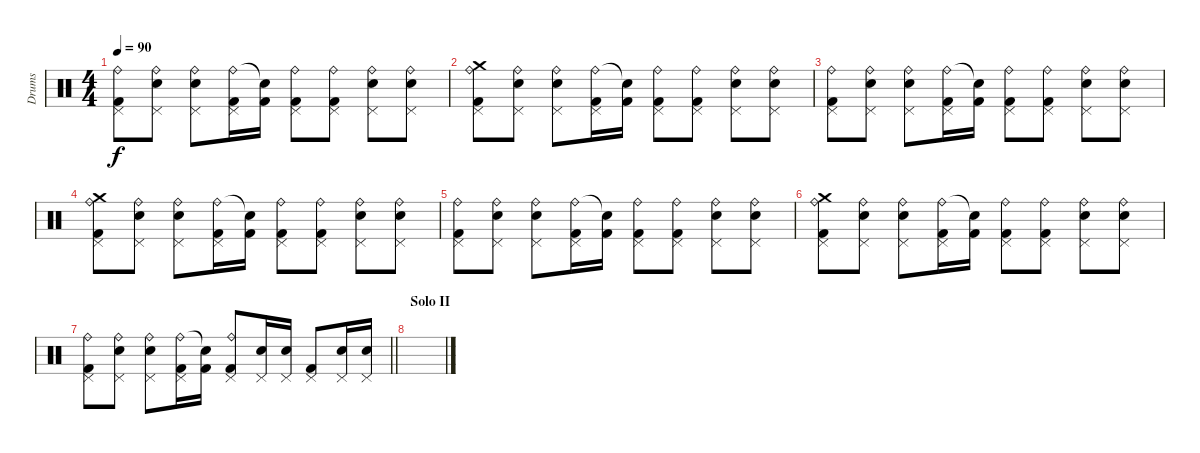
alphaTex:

\track ("Drums" "Drums") {instrument percussion}
\staff {score}
\articulation defaults
\ts (4 4)
\tempo 90
\clef neutral
\ks c
("Ride (bell)" "Pedal Hi-Hat (hit)" "Kick (hit) 2").8{dy f} ("Ride (bell)" "Pedal Hi-Hat (hit)" "Snare (hit)").8 ("Ride (bell)" "Pedal Hi-Hat (hit)" "Electric Snare (hit)").8 ("Ride (bell)" "Pedal Hi-Hat (hit)" "Kick (hit) 2").16 ("Snare (hit)"{t} "Kick (hit) 2").16 ("Ride (bell)" "Pedal Hi-Hat (hit)" "Kick (hit) 2").8 ("Ride (bell)" "Pedal Hi-Hat (hit)" "Kick (hit) 2").8 ("Ride (bell)" "Pedal Hi-Hat (hit)" "Electric Snare (hit)").8 ("Ride (bell)" "Pedal Hi-Hat (hit)" "Snare (hit)").8 |
("Crash medium (hit)" "Ride (bell)" "Pedal Hi-Hat (hit)" "Kick (hit) 2").8 ("Ride (bell)" "Pedal Hi-Hat (hit)" "Snare (hit)").8 ("Ride (bell)" "Pedal Hi-Hat (hit)" "Electric Snare (hit)").8 ("Ride (bell)" "Pedal Hi-Hat (hit)" "Kick (hit) 2").16 ("Snare (hit)"{t} "Kick (hit) 2").16 ("Ride (bell)" "Pedal Hi-Hat (hit)" "Kick (hit) 2").8 ("Ride (bell)" "Pedal Hi-Hat (hit)" "Kick (hit) 2").8 ("Ride (bell)" "Pedal Hi-Hat (hit)" "Electric Snare (hit)").8 ("Ride (bell)" "Pedal Hi-Hat (hit)" "Snare (hit)").8 |
("Ride (bell)" "Pedal Hi-Hat (hit)" "Kick (hit) 2").8 ("Ride (bell)" "Pedal Hi-Hat (hit)" "Snare (hit)").8 ("Ride (bell)" "Pedal Hi-Hat (hit)" "Electric Snare (hit)").8 ("Ride (bell)" "Pedal Hi-Hat (hit)" "Kick (hit) 2").16 ("Snare (hit)"{t} "Kick (hit) 2").16 ("Ride (bell)" "Pedal Hi-Hat (hit)" "Kick (hit) 2").8 ("Ride (bell)" "Pedal Hi-Hat (hit)" "Kick (hit) 2").8 ("Ride (bell)" "Pedal Hi-Hat (hit)" "Electric Snare (hit)").8 ("Ride (bell)" "Pedal Hi-Hat (hit)" "Snare (hit)").8 |
("Crash medium (hit)" "Ride (bell)" "Pedal Hi-Hat (hit)" "Kick (hit) 2").8 ("Ride (bell)" "Pedal Hi-Hat (hit)" "Snare (hit)").8 ("Ride (bell)" "Pedal Hi-Hat (hit)" "Electric Snare (hit)").8 ("Ride (bell)" "Pedal Hi-Hat (hit)" "Kick (hit) 2").16 ("Snare (hit)"{t} "Kick (hit) 2").16 ("Ride (bell)" "Pedal Hi-Hat (hit)" "Kick (hit) 2").8 ("Ride (bell)" "Pedal Hi-Hat (hit)" "Kick (hit) 2").8 ("Ride (bell)" "Pedal Hi-Hat (hit)" "Electric Snare (hit)").8 ("Ride (bell)" "Pedal Hi-Hat (hit)" "Snare (hit)").8 |
("Ride (bell)" "Pedal Hi-Hat (hit)" "Kick (hit) 2").8 ("Ride (bell)" "Pedal Hi-Hat (hit)" "Snare (hit)").8 ("Ride (bell)" "Pedal Hi-Hat (hit)" "Electric Snare (hit)").8 ("Ride (bell)" "Pedal Hi-Hat (hit)" "Kick (hit) 2").16 ("Snare (hit)"{t} "Kick (hit) 2").16 ("Ride (bell)" "Pedal Hi-Hat (hit)" "Kick (hit) 2").8 ("Ride (bell)" "Pedal Hi-Hat (hit)" "Kick (hit) 2").8 ("Ride (bell)" "Pedal Hi-Hat (hit)" "Electric Snare (hit)").8 ("Ride (bell)" "Pedal Hi-Hat (hit)" "Snare (hit)").8 |
("Crash medium (hit)" "Ride (bell)" "Pedal Hi-Hat (hit)" "Kick (hit) 2").8 ("Ride (bell)" "Pedal Hi-Hat (hit)" "Snare (hit)").8 ("Ride (bell)" "Pedal Hi-Hat (hit)" "Electric Snare (hit)").8 ("Ride (bell)" "Pedal Hi-Hat (hit)" "Kick (hit) 2").16 ("Snare (hit)"{t} "Kick (hit) 2").16 ("Ride (bell)" "Pedal Hi-Hat (hit)" "Kick (hit) 2").8 ("Ride (bell)" "Pedal Hi-Hat (hit)" "Kick (hit) 2").8 ("Ride (bell)" "Pedal Hi-Hat (hit)" "Electric Snare (hit)").8 ("Ride (bell)" "Pedal Hi-Hat (hit)" "Snare (hit)").8 |
\barLineRight lightlight
("Ride (bell)" "Pedal Hi-Hat (hit)" "Kick (hit) 2").8 ("Ride (bell)" "Pedal Hi-Hat (hit)" "Snare (hit)").8 ("Ride (bell)" "Pedal Hi-Hat (hit)" "Electric Snare (hit)").8 ("Ride (bell)" "Pedal Hi-Hat (hit)" "Kick (hit) 2").16 ("Snare (hit)"{t} "Kick (hit) 2").16 ("Ride (bell)" "Pedal Hi-Hat (hit)" "Kick (hit) 2").8 ("Pedal Hi-Hat (hit)" "Electric Snare (hit)").16 ("Pedal Hi-Hat (hit)" "Electric Snare (hit)").16 ("Pedal Hi-Hat (hit)" "Kick (hit) 2").8 ("Pedal Hi-Hat (hit)" "Electric Snare (hit)").16 ("Pedal Hi-Hat (hit)" "Electric Snare (hit)").16 |
\section ("" "Solo II")
